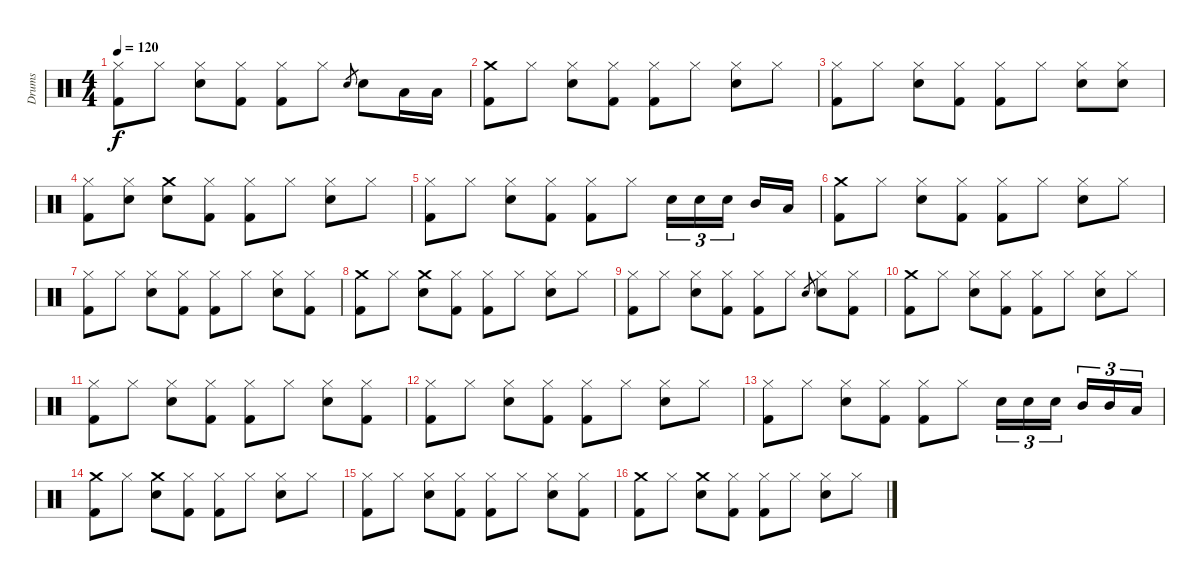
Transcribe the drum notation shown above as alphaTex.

\track ("Drums" "Drums") {instrument percussion}
\staff {score}
\articulation defaults
\ts (4 4)
\tempo 120
\clef neutral
\ks c
("Kick (hit) 2" "Hi-Hat (closed)").8{dy f} "Hi-Hat (closed)".8 ("Snare (hit) 2" "Hi-Hat (closed)").8 ("Kick (hit) 2" "Hi-Hat (closed)").8 ("Kick (hit) 2" "Hi-Hat (closed)").8 "Hi-Hat (closed)".8 "Snare (hit) 2".8{gr} "Snare (hit) 2".8 "Low Tom (hit)".16 "Low Tom (hit)".16 |
("Kick (hit) 2" "Crash medium (hit)").8 "Hi-Hat (closed)".8 ("Snare (hit) 2" "Hi-Hat (closed)").8 ("Kick (hit) 2" "Hi-Hat (closed)").8 ("Kick (hit) 2" "Hi-Hat (closed)").8 "Hi-Hat (closed)".8 ("Snare (hit) 2" "Hi-Hat (closed)").8 "Hi-Hat (closed)".8 |
("Kick (hit) 2" "Hi-Hat (closed)").8 "Hi-Hat (closed)".8 ("Snare (hit) 2" "Hi-Hat (closed)").8 ("Kick (hit) 2" "Hi-Hat (closed)").8 ("Kick (hit) 2" "Hi-Hat (closed)").8 "Hi-Hat (closed)".8 ("Snare (hit) 2" "Hi-Hat (closed)").8 ("Snare (hit) 2" "Hi-Hat (closed)").8 |
("Kick (hit) 2" "Hi-Hat (closed)").8 ("Snare (hit) 2" "Hi-Hat (closed)").8 ("Snare (hit) 2" "Crash medium (hit)").8 ("Kick (hit) 2" "Hi-Hat (closed)").8 ("Kick (hit) 2" "Hi-Hat (closed)").8 "Hi-Hat (closed)".8 ("Snare (hit) 2" "Hi-Hat (closed)").8 "Hi-Hat (closed)".8 |
("Kick (hit) 2" "Hi-Hat (closed)").8 "Hi-Hat (closed)".8 ("Snare (hit) 2" "Hi-Hat (closed)").8 ("Kick (hit) 2" "Hi-Hat (closed)").8 ("Kick (hit) 2" "Hi-Hat (closed)").8 "Hi-Hat (closed)".8 "Snare (hit) 2".16{tu (3 2)} "Snare (hit) 2".16{tu (3 2)} "Snare (hit) 2".16{tu (3 2)} "Mid Tom (hit)".16 "Low Tom (hit)".16 |
("Kick (hit) 2" "Crash medium (hit)").8 "Hi-Hat (closed)".8 ("Snare (hit) 2" "Hi-Hat (closed)").8 ("Kick (hit) 2" "Hi-Hat (closed)").8 ("Kick (hit) 2" "Hi-Hat (closed)").8 "Hi-Hat (closed)".8 ("Snare (hit) 2" "Hi-Hat (closed)").8 "Hi-Hat (closed)".8 |
("Kick (hit) 2" "Hi-Hat (closed)").8 "Hi-Hat (closed)".8 ("Snare (hit) 2" "Hi-Hat (closed)").8 ("Kick (hit) 2" "Hi-Hat (closed)").8 ("Kick (hit) 2" "Hi-Hat (closed)").8 "Hi-Hat (closed)".8 ("Snare (hit) 2" "Hi-Hat (closed)").8 ("Kick (hit) 2" "Hi-Hat (closed)").8 |
("Kick (hit) 2" "Crash medium (hit)").8 "Hi-Hat (closed)".8 ("Snare (hit) 2" "Crash medium (hit)").8 ("Kick (hit) 2" "Hi-Hat (closed)").8 ("Kick (hit) 2" "Hi-Hat (closed)").8 "Hi-Hat (closed)".8 ("Snare (hit) 2" "Hi-Hat (closed)").8 "Hi-Hat (closed)".8 |
("Kick (hit) 2" "Hi-Hat (closed)").8 "Hi-Hat (closed)".8 ("Snare (hit) 2" "Hi-Hat (closed)").8 ("Kick (hit) 2" "Hi-Hat (closed)").8 ("Kick (hit) 2" "Hi-Hat (closed)").8 "Hi-Hat (closed)".8 "Snare (hit) 2".8{gr} ("Snare (hit) 2" "Hi-Hat (closed)").8 ("Kick (hit) 2" "Hi-Hat (closed)").8 |
("Kick (hit) 2" "Crash medium (hit)").8 "Hi-Hat (closed)".8 ("Snare (hit) 2" "Hi-Hat (closed)").8 ("Kick (hit) 2" "Hi-Hat (closed)").8 ("Kick (hit) 2" "Hi-Hat (closed)").8 "Hi-Hat (closed)".8 ("Snare (hit) 2" "Hi-Hat (closed)").8 "Hi-Hat (closed)".8 |
("Kick (hit) 2" "Hi-Hat (closed)").8 "Hi-Hat (closed)".8 ("Snare (hit) 2" "Hi-Hat (closed)").8 ("Kick (hit) 2" "Hi-Hat (closed)").8 ("Kick (hit) 2" "Hi-Hat (closed)").8 "Hi-Hat (closed)".8 ("Snare (hit) 2" "Hi-Hat (closed)").8 ("Kick (hit) 2" "Hi-Hat (closed)").8 |
("Kick (hit) 2" "Hi-Hat (closed)").8 "Hi-Hat (closed)".8 ("Snare (hit) 2" "Hi-Hat (closed)").8 ("Kick (hit) 2" "Hi-Hat (closed)").8 ("Kick (hit) 2" "Hi-Hat (closed)").8 "Hi-Hat (closed)".8 ("Snare (hit) 2" "Hi-Hat (closed)").8 "Hi-Hat (closed)".8 |
("Kick (hit) 2" "Hi-Hat (closed)").8 "Hi-Hat (closed)".8 ("Snare (hit) 2" "Hi-Hat (closed)").8 ("Kick (hit) 2" "Hi-Hat (closed)").8 ("Kick (hit) 2" "Hi-Hat (closed)").8 "Hi-Hat (closed)".8 "Snare (hit) 2".16{tu (3 2)} "Snare (hit) 2".16{tu (3 2)} "Snare (hit) 2".16{tu (3 2)} "Mid Tom (hit)".16{tu (3 2)} "Mid Tom (hit)".16{tu (3 2)} "Low Tom (hit)".16{tu (3 2)} |
("Kick (hit) 2" "Crash medium (hit)").8 "Hi-Hat (closed)".8 ("Snare (hit) 2" "Crash medium (hit)").8 ("Kick (hit) 2" "Hi-Hat (closed)").8 ("Kick (hit) 2" "Hi-Hat (closed)").8 "Hi-Hat (closed)".8 ("Snare (hit) 2" "Hi-Hat (closed)").8 "Hi-Hat (closed)".8 |
("Kick (hit) 2" "Hi-Hat (closed)").8 "Hi-Hat (closed)".8 ("Snare (hit) 2" "Hi-Hat (closed)").8 ("Kick (hit) 2" "Hi-Hat (closed)").8 ("Kick (hit) 2" "Hi-Hat (closed)").8 "Hi-Hat (closed)".8 ("Snare (hit) 2" "Hi-Hat (closed)").8 ("Kick (hit) 2" "Hi-Hat (closed)").8 |
("Kick (hit) 2" "Crash medium (hit)").8 "Hi-Hat (closed)".8 ("Snare (hit) 2" "Crash medium (hit)").8 ("Kick (hit) 2" "Hi-Hat (closed)").8 ("Kick (hit) 2" "Hi-Hat (closed)").8 "Hi-Hat (closed)".8 ("Snare (hit) 2" "Hi-Hat (closed)").8 "Hi-Hat (closed)".8
